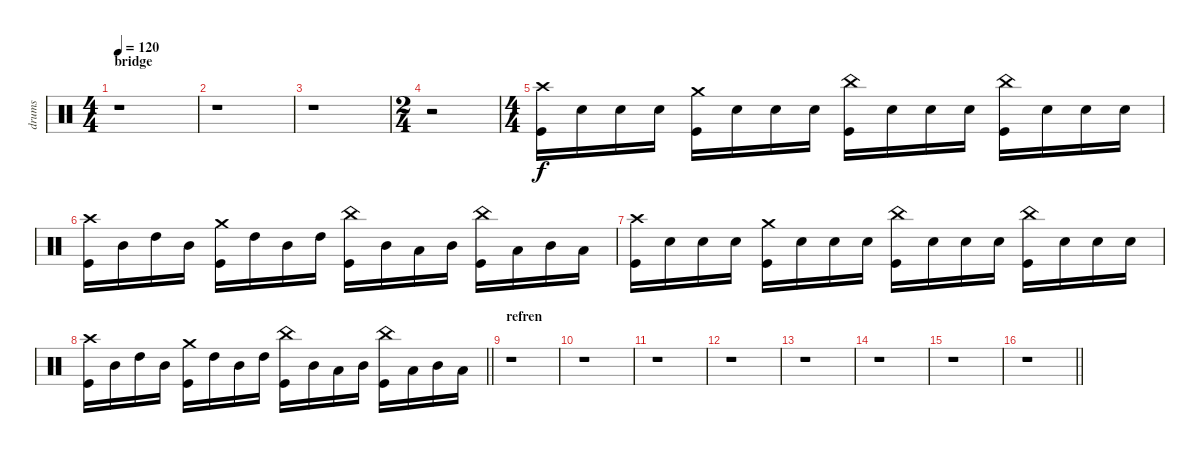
\track ("drums" "drums") {instrument percussion}
\staff {score}
\articulation defaults
\ts (4 4)
\section ("" "bridge")
\tempo 120
\clef neutral
\ks c
r.1{dy f} |
r.1 |
r.1 |
\ts (2 4)
r.2 |
\ts (4 4)
("Crash high (hit)" "Kick (hit)").16 "Electric Snare (hit)".16 "Electric Snare (hit)".16 "Electric Snare (hit)".16 ("Crash medium (hit)" "Kick (hit)").16 "Electric Snare (hit)".16 "Electric Snare (hit)".16 "Electric Snare (hit)".16 ("China (hit)" "Kick (hit)").16 "Electric Snare (hit)".16 "Electric Snare (hit)".16 "Electric Snare (hit)".16 ("China (hit)" "Kick (hit)").16 "Electric Snare (hit)".16 "Electric Snare (hit)".16 "Electric Snare (hit)".16 |
("Crash high (hit)" "Kick (hit)").16 "Mid Tom (hit)".16 "High Tom (hit)".16 "Mid Tom (hit)".16 ("Crash medium (hit)" "Kick (hit)").16 "High Tom (hit)".16 "Mid Tom (hit)".16 "High Tom (hit)".16 ("China (hit)" "Kick (hit)").16 "Mid Tom (hit)".16 "Low Tom (hit)".16 "Mid Tom (hit)".16 ("China (hit)" "Kick (hit)").16 "Low Tom (hit)".16 "Mid Tom (hit)".16 "Low Tom (hit)".16 |
("Crash high (hit)" "Kick (hit)").16 "Electric Snare (hit)".16 "Electric Snare (hit)".16 "Electric Snare (hit)".16 ("Crash medium (hit)" "Kick (hit)").16 "Electric Snare (hit)".16 "Electric Snare (hit)".16 "Electric Snare (hit)".16 ("China (hit)" "Kick (hit)").16 "Electric Snare (hit)".16 "Electric Snare (hit)".16 "Electric Snare (hit)".16 ("China (hit)" "Kick (hit)").16 "Electric Snare (hit)".16 "Electric Snare (hit)".16 "Electric Snare (hit)".16 |
\barLineRight lightlight
("Crash high (hit)" "Kick (hit)").16 "Mid Tom (hit)".16 "High Tom (hit)".16 "Mid Tom (hit)".16 ("Crash medium (hit)" "Kick (hit)").16 "High Tom (hit)".16 "Mid Tom (hit)".16 "High Tom (hit)".16 ("China (hit)" "Kick (hit)").16 "Mid Tom (hit)".16 "Low Tom (hit)".16 "Mid Tom (hit)".16 ("China (hit)" "Kick (hit)").16 "Low Tom (hit)".16 "Mid Tom (hit)".16 "Low Tom (hit)".16 |
\section ("" "refren")
r.1 |
r.1 |
r.1 |
r.1 |
r.1 |
r.1 |
r.1 |
\barLineRight lightlight
r.1
